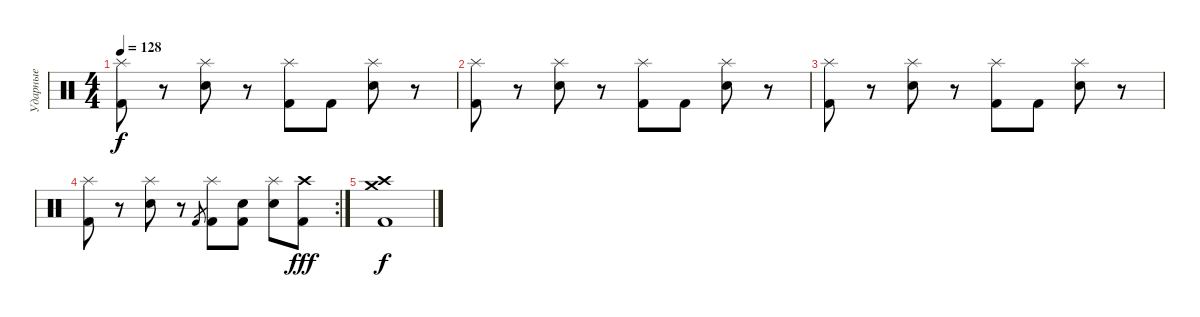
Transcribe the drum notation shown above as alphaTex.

\track ("Ударные" "Ударные") {instrument percussion}
\staff {score}
\articulation defaults
\ts (4 4)
\tempo 128
\clef neutral
\ks c
("Splash (hit)" "Kick (hit) 2").8{dy f} r.8 ("Splash (hit)" "Electric Snare (hit)").8 r.8 ("Splash (hit)" "Kick (hit) 2").8 "Kick (hit) 2".8 ("Splash (hit)" "Electric Snare (hit)").8 r.8 |
("Splash (hit)" "Kick (hit) 2").8 r.8 ("Splash (hit)" "Electric Snare (hit)").8 r.8 ("Splash (hit)" "Kick (hit) 2").8 "Kick (hit) 2".8 ("Splash (hit)" "Electric Snare (hit)").8 r.8 |
("Splash (hit)" "Kick (hit) 2").8 r.8 ("Splash (hit)" "Electric Snare (hit)").8 r.8 ("Splash (hit)" "Kick (hit) 2").8 "Kick (hit) 2".8 ("Splash (hit)" "Electric Snare (hit)").8 r.8 |
\rc 2
("Splash (hit)" "Kick (hit) 2").8 r.8 ("Splash (hit)" "Electric Snare (hit)").8 r.8 "Kick (hit) 2".8{gr} ("Splash (hit)" "Kick (hit) 2").8 ("Electric Snare (hit)" "Kick (hit) 2").8 ("Splash (hit)" "Electric Snare (hit)").8 ("Crash high (hit)" "Kick (hit) 2").8{dy fff} |
("Crash high (hit)" "Crash medium (hit)" "Kick (hit) 2").1{dy f}
